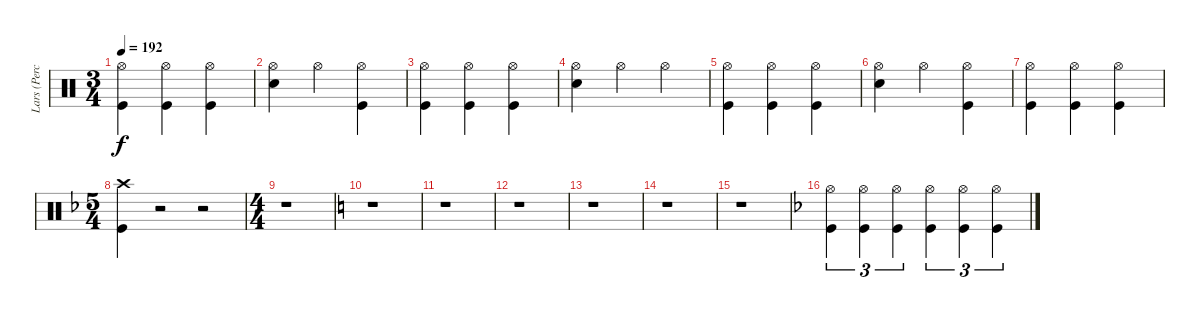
\track ("Lars (Percussion)" "Lars (Perc") {instrument percussion}
\staff {score}
\articulation defaults
\ts (3 4)
\tempo 192
\clef neutral
\ks c
("Hi-Hat (open)" "Kick (hit)").4{dy f} ("Hi-Hat (open)" "Kick (hit)").4 ("Hi-Hat (open)" "Kick (hit)").4 |
("Hi-Hat (open)" "Electric Snare (hit)").4 "Hi-Hat (open)".4 ("Hi-Hat (open)" "Kick (hit)").4 |
("Hi-Hat (open)" "Kick (hit)").4 ("Hi-Hat (open)" "Kick (hit)").4 ("Hi-Hat (open)" "Kick (hit)").4 |
("Hi-Hat (open)" "Electric Snare (hit)").4 "Hi-Hat (open)".4 "Hi-Hat (open)".4 |
("Hi-Hat (open)" "Kick (hit)").4 ("Hi-Hat (open)" "Kick (hit)").4 ("Hi-Hat (open)" "Kick (hit)").4 |
("Hi-Hat (open)" "Electric Snare (hit)").4 "Hi-Hat (open)".4 ("Hi-Hat (open)" "Kick (hit)").4 |
("Hi-Hat (open)" "Kick (hit)").4 ("Hi-Hat (open)" "Kick (hit)").4 ("Hi-Hat (open)" "Kick (hit)").4 |
\ts (5 4)
\ks f
("Crash high (hit)" "Kick (hit)").4 r.2 r.2 |
\ts (4 4)
r.1 |
\ks c
r.1 |
r.1 |
r.1 |
r.1 |
r.1 |
r.1 |
\ks f
("Hi-Hat (open)" "Kick (hit)").4{tu (3 2)} ("Hi-Hat (open)" "Kick (hit)").4{tu (3 2)} ("Hi-Hat (open)" "Kick (hit)").4{tu (3 2)} ("Hi-Hat (open)" "Kick (hit)").4{tu (3 2)} ("Hi-Hat (open)" "Kick (hit)").4{tu (3 2)} ("Hi-Hat (open)" "Kick (hit)").4{tu (3 2)}
